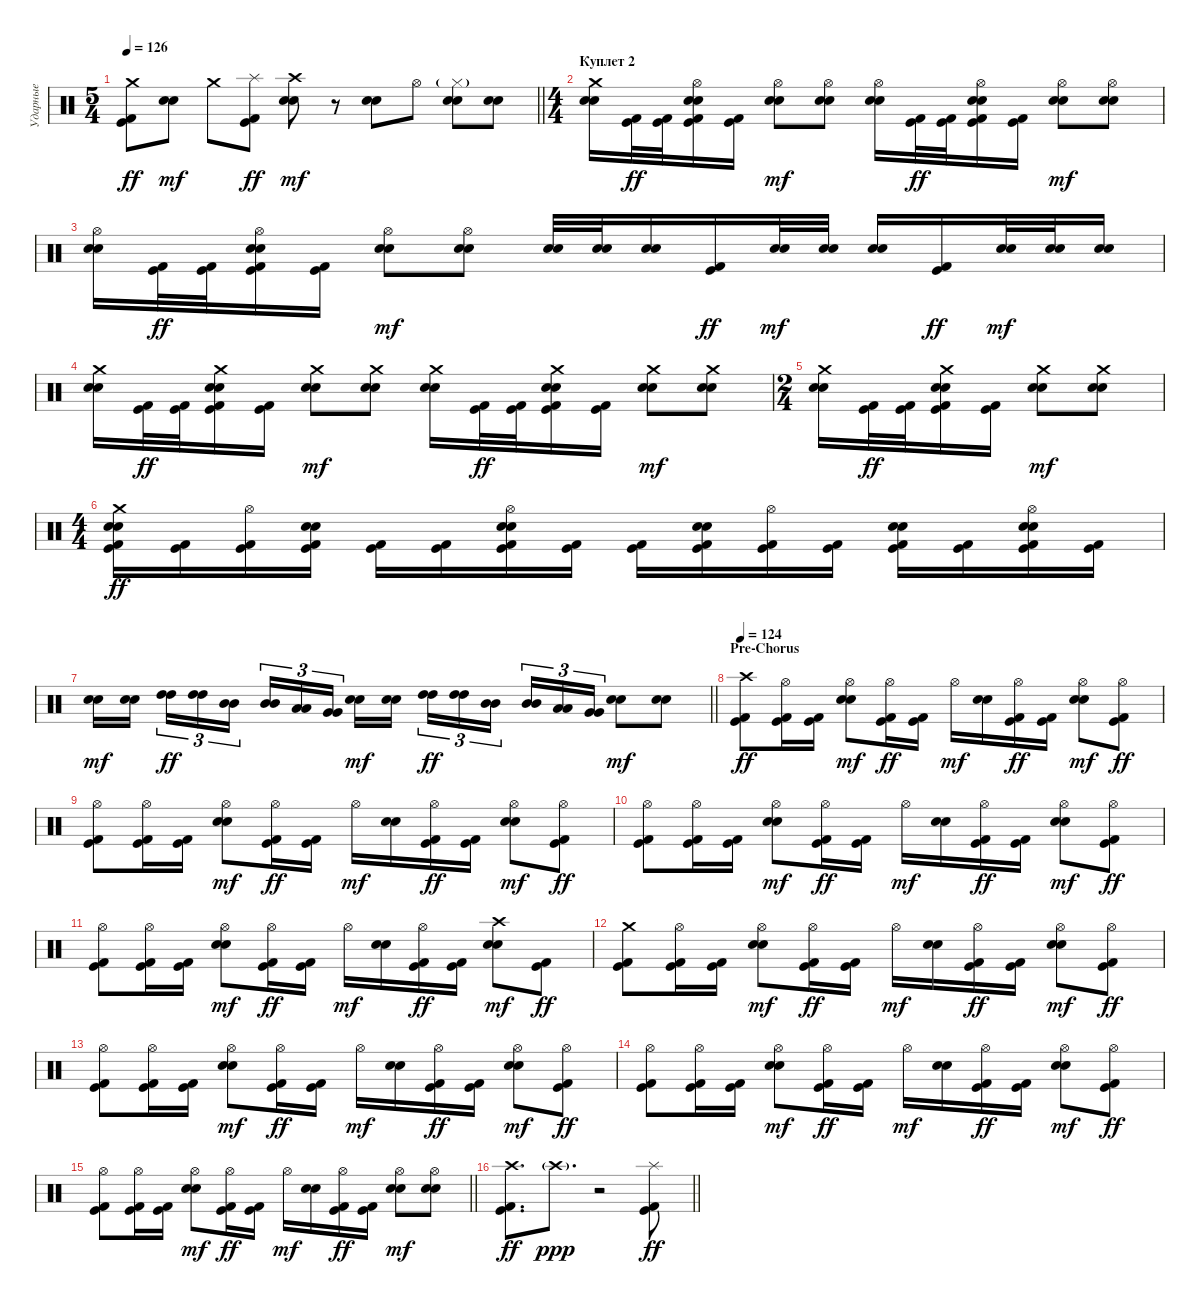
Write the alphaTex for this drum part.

\track ("Ударные" "Ударные") {instrument percussion}
\staff {score}
\articulation defaults
\ts (5 4)
\tempo 126
\clef neutral
\barLineRight lightlight
\ks c
("Crash medium (hit)" "Kick (hit) 2" "Kick (hit)").8{dy ff} ("Snare (hit) 2" "Electric Snare (hit)").8{dy mf} "Crash medium (hit)".8 ("Splash (hit)" "Kick (hit) 2" "Kick (hit)").8{dy ff} ("Crash high (hit)" "Snare (hit) 2" "Electric Snare (hit)").8{dy mf} r.8 ("Snare (hit) 2" "Electric Snare (hit)").8 "Hi-Hat (open)".8 ("Hi-Hat (closed)"{g} "Snare (hit) 2" "Electric Snare (hit)").8 ("Snare (hit) 2" "Electric Snare (hit)").8 |
\ts (4 4)
\section ("" "Куплет 2")
("Crash medium (hit)" "Snare (hit) 2" "Electric Snare (hit)").16 ("Kick (hit) 2" "Kick (hit)").32{dy ff} ("Kick (hit) 2" "Kick (hit)").32 ("Hi-Hat (open)" "Snare (hit) 2" "Electric Snare (hit)" "Kick (hit) 2" "Kick (hit)").16 ("Kick (hit) 2" "Kick (hit)").16 ("Hi-Hat (open)" "Snare (hit) 2" "Electric Snare (hit)").8{dy mf} ("Hi-Hat (open)" "Snare (hit) 2" "Electric Snare (hit)").8 ("Hi-Hat (open)" "Snare (hit) 2" "Electric Snare (hit)").16 ("Kick (hit) 2" "Kick (hit)").32{dy ff} ("Kick (hit) 2" "Kick (hit)").32 ("Hi-Hat (open)" "Snare (hit) 2" "Electric Snare (hit)" "Kick (hit) 2" "Kick (hit)").16 ("Kick (hit) 2" "Kick (hit)").16 ("Hi-Hat (open)" "Snare (hit) 2" "Electric Snare (hit)").8{dy mf} ("Hi-Hat (open)" "Snare (hit) 2" "Electric Snare (hit)").8 |
("Hi-Hat (open)" "Snare (hit) 2" "Electric Snare (hit)").16 ("Kick (hit) 2" "Kick (hit)").32{dy ff} ("Kick (hit) 2" "Kick (hit)").32 ("Hi-Hat (open)" "Snare (hit) 2" "Electric Snare (hit)" "Kick (hit) 2" "Kick (hit)").16 ("Kick (hit) 2" "Kick (hit)").16 ("Hi-Hat (open)" "Snare (hit) 2" "Electric Snare (hit)").8{dy mf} ("Hi-Hat (open)" "Snare (hit) 2" "Electric Snare (hit)").8 ("Snare (hit) 2" "Electric Snare (hit)").32 ("Snare (hit) 2" "Electric Snare (hit)").32 ("Snare (hit) 2" "Electric Snare (hit)").16 ("Kick (hit) 2" "Kick (hit)").16{dy ff} ("Snare (hit) 2" "Electric Snare (hit)").32{dy mf} ("Snare (hit) 2" "Electric Snare (hit)").32 ("Snare (hit) 2" "Electric Snare (hit)").16 ("Kick (hit) 2" "Kick (hit)").16{dy ff} ("Snare (hit) 2" "Electric Snare (hit)").32{dy mf} ("Snare (hit) 2" "Electric Snare (hit)").32 ("Snare (hit) 2" "Electric Snare (hit)").16 |
("Crash medium (hit)" "Snare (hit) 2" "Electric Snare (hit)").16 ("Kick (hit) 2" "Kick (hit)").32{dy ff} ("Kick (hit) 2" "Kick (hit)").32 ("Crash medium (hit)" "Snare (hit) 2" "Electric Snare (hit)" "Kick (hit) 2" "Kick (hit)").16 ("Kick (hit) 2" "Kick (hit)").16 ("Crash medium (hit)" "Snare (hit) 2" "Electric Snare (hit)").8{dy mf} ("Crash medium (hit)" "Snare (hit) 2" "Electric Snare (hit)").8 ("Crash medium (hit)" "Snare (hit) 2" "Electric Snare (hit)").16 ("Kick (hit) 2" "Kick (hit)").32{dy ff} ("Kick (hit) 2" "Kick (hit)").32 ("Crash medium (hit)" "Snare (hit) 2" "Electric Snare (hit)" "Kick (hit) 2" "Kick (hit)").16 ("Kick (hit) 2" "Kick (hit)").16 ("Crash medium (hit)" "Snare (hit) 2" "Electric Snare (hit)").8{dy mf} ("Crash medium (hit)" "Snare (hit) 2" "Electric Snare (hit)").8 |
\ts (2 4)
("Crash medium (hit)" "Snare (hit) 2" "Electric Snare (hit)").16 ("Kick (hit) 2" "Kick (hit)").32{dy ff} ("Kick (hit) 2" "Kick (hit)").32 ("Crash medium (hit)" "Snare (hit) 2" "Electric Snare (hit)" "Kick (hit) 2" "Kick (hit)").16 ("Kick (hit) 2" "Kick (hit)").16 ("Crash medium (hit)" "Snare (hit) 2" "Electric Snare (hit)").8{dy mf} ("Crash medium (hit)" "Snare (hit) 2" "Electric Snare (hit)").8 |
\ts (4 4)
("Crash medium (hit)" "Snare (hit) 2" "Electric Snare (hit)" "Kick (hit) 2" "Kick (hit)").16{dy ff} ("Kick (hit) 2" "Kick (hit)").16 ("Hi-Hat (open)" "Kick (hit) 2" "Kick (hit)").16 ("Snare (hit) 2" "Electric Snare (hit)" "Kick (hit) 2" "Kick (hit)").16 ("Kick (hit) 2" "Kick (hit)").16 ("Kick (hit) 2" "Kick (hit)").16 ("Hi-Hat (open)" "Snare (hit) 2" "Electric Snare (hit)" "Kick (hit) 2" "Kick (hit)").16 ("Kick (hit) 2" "Kick (hit)").16 ("Kick (hit) 2" "Kick (hit)").16 ("Snare (hit) 2" "Electric Snare (hit)" "Kick (hit) 2" "Kick (hit)").16 ("Hi-Hat (open)" "Kick (hit) 2" "Kick (hit)").16 ("Kick (hit) 2" "Kick (hit)").16 ("Snare (hit) 2" "Electric Snare (hit)" "Kick (hit) 2" "Kick (hit)").16 ("Kick (hit) 2" "Kick (hit)").16 ("Hi-Hat (open)" "Snare (hit) 2" "Electric Snare (hit)" "Kick (hit) 2" "Kick (hit)").16 ("Kick (hit) 2" "Kick (hit)").16 |
\barLineRight lightlight
("Snare (hit) 2" "Electric Snare (hit)").16{dy mf} ("Snare (hit) 2" "Electric Snare (hit)").16{beam splitsecondary} ("High Tom (hit)" "High Tom (hit)").16{tu (3 2) dy ff} ("High Tom (hit)" "High Tom (hit)").16{tu (3 2)} ("Mid Tom (hit)" "Mid Tom (hit)").16{tu (3 2)} ("Mid Tom (hit)" "Mid Tom (hit)").16{tu (3 2)} ("Low Tom (hit)" "Low Tom (hit)").16{tu (3 2)} ("Very Low Tom (hit)" "Very Low Tom (hit)").16{tu (3 2) beam splitsecondary} ("Snare (hit) 2" "Electric Snare (hit)").16{dy mf} ("Snare (hit) 2" "Electric Snare (hit)").16 ("High Tom (hit)" "High Tom (hit)").16{tu (3 2) dy ff} ("High Tom (hit)" "High Tom (hit)").16{tu (3 2)} ("Mid Tom (hit)" "Mid Tom (hit)").16{tu (3 2) beam splitsecondary} ("Mid Tom (hit)" "Mid Tom (hit)").16{tu (3 2)} ("Low Tom (hit)" "Low Tom (hit)").16{tu (3 2)} ("Very Low Tom (hit)" "Very Low Tom (hit)").16{tu (3 2)} ("Snare (hit) 2" "Electric Snare (hit)").8{dy mf} ("Snare (hit) 2" "Electric Snare (hit)").8 |
\section ("" "Pre-Chorus")
\tempo 124
("Crash high (hit)" "Kick (hit) 2" "Kick (hit)").8{dy ff} ("Hi-Hat (open)" "Kick (hit) 2" "Kick (hit)").16 ("Kick (hit) 2" "Kick (hit)").16 ("Hi-Hat (open)" "Snare (hit) 2" "Electric Snare (hit)").8{dy mf} ("Hi-Hat (open)" "Kick (hit) 2" "Kick (hit)").16{dy ff} ("Kick (hit) 2" "Kick (hit)").16 "Hi-Hat (open)".16{dy mf} ("Snare (hit) 2" "Electric Snare (hit)").16 ("Hi-Hat (open)" "Kick (hit) 2" "Kick (hit)").16{dy ff} ("Kick (hit) 2" "Kick (hit)").16 ("Hi-Hat (open)" "Snare (hit) 2" "Electric Snare (hit)").8{dy mf} ("Hi-Hat (open)" "Kick (hit) 2" "Kick (hit)").8{dy ff} |
("Hi-Hat (open)" "Kick (hit) 2" "Kick (hit)").8 ("Hi-Hat (open)" "Kick (hit) 2" "Kick (hit)").16 ("Kick (hit) 2" "Kick (hit)").16 ("Hi-Hat (open)" "Snare (hit) 2" "Electric Snare (hit)").8{dy mf} ("Hi-Hat (open)" "Kick (hit) 2" "Kick (hit)").16{dy ff} ("Kick (hit) 2" "Kick (hit)").16 "Hi-Hat (open)".16{dy mf} ("Snare (hit) 2" "Electric Snare (hit)").16 ("Hi-Hat (open)" "Kick (hit) 2" "Kick (hit)").16{dy ff} ("Kick (hit) 2" "Kick (hit)").16 ("Hi-Hat (open)" "Snare (hit) 2" "Electric Snare (hit)").8{dy mf} ("Hi-Hat (open)" "Kick (hit) 2" "Kick (hit)").8{dy ff} |
("Hi-Hat (open)" "Kick (hit) 2" "Kick (hit)").8 ("Hi-Hat (open)" "Kick (hit) 2" "Kick (hit)").16 ("Kick (hit) 2" "Kick (hit)").16 ("Hi-Hat (open)" "Snare (hit) 2" "Electric Snare (hit)").8{dy mf} ("Hi-Hat (open)" "Kick (hit) 2" "Kick (hit)").16{dy ff} ("Kick (hit) 2" "Kick (hit)").16 "Hi-Hat (open)".16{dy mf} ("Snare (hit) 2" "Electric Snare (hit)").16 ("Hi-Hat (open)" "Kick (hit) 2" "Kick (hit)").16{dy ff} ("Kick (hit) 2" "Kick (hit)").16 ("Hi-Hat (open)" "Snare (hit) 2" "Electric Snare (hit)").8{dy mf} ("Hi-Hat (open)" "Kick (hit) 2" "Kick (hit)").8{dy ff} |
("Hi-Hat (open)" "Kick (hit) 2" "Kick (hit)").8 ("Hi-Hat (open)" "Kick (hit) 2" "Kick (hit)").16 ("Kick (hit) 2" "Kick (hit)").16 ("Hi-Hat (open)" "Snare (hit) 2" "Electric Snare (hit)").8{dy mf} ("Hi-Hat (open)" "Kick (hit) 2" "Kick (hit)").16{dy ff} ("Kick (hit) 2" "Kick (hit)").16 "Hi-Hat (open)".16{dy mf} ("Snare (hit) 2" "Electric Snare (hit)").16 ("Hi-Hat (open)" "Kick (hit) 2" "Kick (hit)").16{dy ff} ("Kick (hit) 2" "Kick (hit)").16 ("Crash high (hit)" "Snare (hit) 2" "Electric Snare (hit)").8{dy mf} ("Kick (hit) 2" "Kick (hit)").8{dy ff} |
("Crash medium (hit)" "Kick (hit) 2" "Kick (hit)").8 ("Hi-Hat (open)" "Kick (hit) 2" "Kick (hit)").16 ("Kick (hit) 2" "Kick (hit)").16 ("Hi-Hat (open)" "Snare (hit) 2" "Electric Snare (hit)").8{dy mf} ("Hi-Hat (open)" "Kick (hit) 2" "Kick (hit)").16{dy ff} ("Kick (hit) 2" "Kick (hit)").16 "Hi-Hat (open)".16{dy mf} ("Snare (hit) 2" "Electric Snare (hit)").16 ("Hi-Hat (open)" "Kick (hit) 2" "Kick (hit)").16{dy ff} ("Kick (hit) 2" "Kick (hit)").16 ("Hi-Hat (open)" "Snare (hit) 2" "Electric Snare (hit)").8{dy mf} ("Hi-Hat (open)" "Kick (hit) 2" "Kick (hit)").8{dy ff} |
("Hi-Hat (open)" "Kick (hit) 2" "Kick (hit)").8 ("Hi-Hat (open)" "Kick (hit) 2" "Kick (hit)").16 ("Kick (hit) 2" "Kick (hit)").16 ("Hi-Hat (open)" "Snare (hit) 2" "Electric Snare (hit)").8{dy mf} ("Hi-Hat (open)" "Kick (hit) 2" "Kick (hit)").16{dy ff} ("Kick (hit) 2" "Kick (hit)").16 "Hi-Hat (open)".16{dy mf} ("Snare (hit) 2" "Electric Snare (hit)").16 ("Hi-Hat (open)" "Kick (hit) 2" "Kick (hit)").16{dy ff} ("Kick (hit) 2" "Kick (hit)").16 ("Hi-Hat (open)" "Snare (hit) 2" "Electric Snare (hit)").8{dy mf} ("Hi-Hat (open)" "Kick (hit) 2" "Kick (hit)").8{dy ff} |
("Hi-Hat (open)" "Kick (hit) 2" "Kick (hit)").8 ("Hi-Hat (open)" "Kick (hit) 2" "Kick (hit)").16 ("Kick (hit) 2" "Kick (hit)").16 ("Hi-Hat (open)" "Snare (hit) 2" "Electric Snare (hit)").8{dy mf} ("Hi-Hat (open)" "Kick (hit) 2" "Kick (hit)").16{dy ff} ("Kick (hit) 2" "Kick (hit)").16 "Hi-Hat (open)".16{dy mf} ("Snare (hit) 2" "Electric Snare (hit)").16 ("Hi-Hat (open)" "Kick (hit) 2" "Kick (hit)").16{dy ff} ("Kick (hit) 2" "Kick (hit)").16 ("Hi-Hat (open)" "Snare (hit) 2" "Electric Snare (hit)").8{dy mf} ("Hi-Hat (open)" "Kick (hit) 2" "Kick (hit)").8{dy ff} |
\barLineRight lightlight
("Hi-Hat (open)" "Kick (hit) 2" "Kick (hit)").8 ("Hi-Hat (open)" "Kick (hit) 2" "Kick (hit)").16 ("Kick (hit) 2" "Kick (hit)").16 ("Hi-Hat (open)" "Snare (hit) 2" "Electric Snare (hit)").8{dy mf} ("Hi-Hat (open)" "Kick (hit) 2" "Kick (hit)").16{dy ff} ("Kick (hit) 2" "Kick (hit)").16 "Hi-Hat (open)".16{dy mf} ("Snare (hit) 2" "Electric Snare (hit)").16 ("Hi-Hat (open)" "Kick (hit) 2" "Kick (hit)").16{dy ff} ("Kick (hit) 2" "Kick (hit)").16 ("Hi-Hat (open)" "Snare (hit) 2" "Electric Snare (hit)").8{dy mf} ("Hi-Hat (open)" "Snare (hit) 2" "Electric Snare (hit)").8 |
\barLineRight lightlight
("Crash high (hit)" "Kick (hit) 2" "Kick (hit)").8{d dy ff} "Crash high (hit)"{g}.8{d dy ppp} r.2 ("Splash (hit)" "Kick (hit) 2" "Kick (hit)").8{dy ff}
